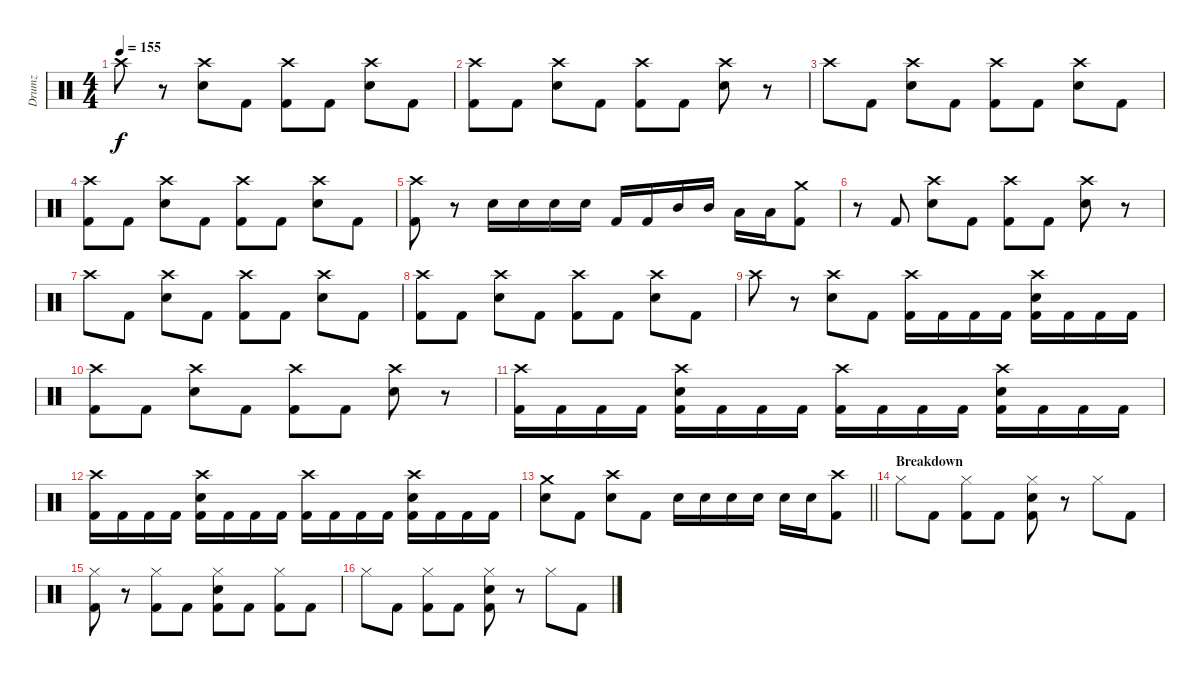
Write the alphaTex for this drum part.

\track ("Drumz" "Drumz") {instrument percussion}
\staff {score}
\articulation defaults
\ts (4 4)
\tempo 155
\clef neutral
\ks c "Crash high (hit)".8{dy f}
r.8 ("Electric Snare (hit)" "Crash high (hit)").8 "Kick (hit) 2".8 ("Kick (hit) 2" "Crash high (hit)").8 "Kick (hit) 2".8 ("Electric Snare (hit)" "Crash high (hit)").8 "Kick (hit) 2".8 |
("Kick (hit) 2" "Crash high (hit)").8 "Kick (hit) 2".8 ("Electric Snare (hit)" "Crash high (hit)").8 "Kick (hit) 2".8 ("Kick (hit) 2" "Crash high (hit)").8 "Kick (hit) 2".8 ("Electric Snare (hit)" "Crash high (hit)").8 r.8 |
"Crash high (hit)".8 "Kick (hit) 2".8 ("Electric Snare (hit)" "Crash high (hit)").8 "Kick (hit) 2".8 ("Kick (hit) 2" "Crash high (hit)").8 "Kick (hit) 2".8 ("Electric Snare (hit)" "Crash high (hit)").8 "Kick (hit) 2".8 |
("Kick (hit) 2" "Crash high (hit)").8 "Kick (hit) 2".8 ("Electric Snare (hit)" "Crash high (hit)").8 "Kick (hit) 2".8 ("Kick (hit) 2" "Crash high (hit)").8 "Kick (hit) 2".8 ("Electric Snare (hit)" "Crash high (hit)").8 "Kick (hit) 2".8 |
("Crash high (hit)" "Kick (hit) 2").8 r.8 "Electric Snare (hit)".16 "Electric Snare (hit)".16 "Electric Snare (hit)".16 "Electric Snare (hit)".16 "Kick (hit) 2".16 "Kick (hit) 2".16 "Mid Tom (hit)".16 "Mid Tom (hit)".16 "Low Tom (hit)".16 "Low Tom (hit)".16 ("Kick (hit) 2" "Crash medium (hit)").8 |
r.8 "Kick (hit) 2".8 ("Electric Snare (hit)" "Crash high (hit)").8 "Kick (hit) 2".8 ("Kick (hit) 2" "Crash high (hit)").8 "Kick (hit) 2".8 ("Electric Snare (hit)" "Crash high (hit)").8 r.8 |
"Crash high (hit)".8 "Kick (hit) 2".8 ("Electric Snare (hit)" "Crash high (hit)").8 "Kick (hit) 2".8 ("Kick (hit) 2" "Crash high (hit)").8 "Kick (hit) 2".8 ("Electric Snare (hit)" "Crash high (hit)").8 "Kick (hit) 2".8 |
("Kick (hit) 2" "Crash high (hit)").8 "Kick (hit) 2".8 ("Electric Snare (hit)" "Crash high (hit)").8 "Kick (hit) 2".8 ("Kick (hit) 2" "Crash high (hit)").8 "Kick (hit) 2".8 ("Electric Snare (hit)" "Crash high (hit)").8 "Kick (hit) 2".8 |
"Crash high (hit)".8 r.8 ("Electric Snare (hit)" "Crash high (hit)").8 "Kick (hit) 2".8 ("Kick (hit) 2" "Crash high (hit)").16 "Kick (hit) 2".16 "Kick (hit) 2".16 "Kick (hit) 2".16 ("Electric Snare (hit)" "Crash high (hit)" "Kick (hit) 2").16 "Kick (hit) 2".16 "Kick (hit) 2".16 "Kick (hit) 2".16 |
("Crash high (hit)" "Kick (hit) 2").8 "Kick (hit) 2".8 ("Electric Snare (hit)" "Crash high (hit)").8 "Kick (hit) 2".8 ("Kick (hit) 2" "Crash high (hit)").8 "Kick (hit) 2".8 ("Electric Snare (hit)" "Crash high (hit)").8 r.8 |
("Kick (hit) 2" "Crash high (hit)").16 "Kick (hit) 2".16 "Kick (hit) 2".16 "Kick (hit) 2".16 ("Electric Snare (hit)" "Crash high (hit)" "Kick (hit) 2").16 "Kick (hit) 2".16 "Kick (hit) 2".16 "Kick (hit) 2".16 ("Kick (hit) 2" "Crash high (hit)").16 "Kick (hit) 2".16 "Kick (hit) 2".16 "Kick (hit) 2".16 ("Electric Snare (hit)" "Crash high (hit)" "Kick (hit) 2").16 "Kick (hit) 2".16 "Kick (hit) 2".16 "Kick (hit) 2".16 |
("Kick (hit) 2" "Crash high (hit)").16 "Kick (hit) 2".16 "Kick (hit) 2".16 "Kick (hit) 2".16 ("Electric Snare (hit)" "Crash high (hit)" "Kick (hit) 2").16 "Kick (hit) 2".16 "Kick (hit) 2".16 "Kick (hit) 2".16 ("Kick (hit) 2" "Crash high (hit)").16 "Kick (hit) 2".16 "Kick (hit) 2".16 "Kick (hit) 2".16 ("Electric Snare (hit)" "Crash high (hit)" "Kick (hit) 2").16 "Kick (hit) 2".16 "Kick (hit) 2".16 "Kick (hit) 2".16 |
\barLineRight lightlight
("Electric Snare (hit)" "Crash medium (hit)").8 "Kick (hit) 2".8 ("Electric Snare (hit)" "Crash high (hit)").8 "Kick (hit) 2".8 "Electric Snare (hit)".16 "Electric Snare (hit)".16 "Electric Snare (hit)".16 "Electric Snare (hit)".16 "Electric Snare (hit)".16 "Electric Snare (hit)".16 ("Crash high (hit)" "Kick (hit) 2").8 |
\section ("" "Breakdown")
"Hi-Hat (closed)".8 "Kick (hit) 2".8 ("Kick (hit) 2" "Hi-Hat (closed)").8 "Kick (hit) 2".8 ("Kick (hit) 2" "Electric Snare (hit)" "Hi-Hat (closed)").8 r.8 "Hi-Hat (closed)".8 "Kick (hit) 2".8 |
("Hi-Hat (closed)" "Kick (hit) 2").8 r.8 ("Kick (hit) 2" "Hi-Hat (closed)").8 "Kick (hit) 2".8 ("Kick (hit) 2" "Electric Snare (hit)" "Hi-Hat (closed)").8 "Kick (hit) 2".8 ("Hi-Hat (closed)" "Kick (hit) 2").8 "Kick (hit) 2".8 |
"Hi-Hat (closed)".8 "Kick (hit) 2".8 ("Kick (hit) 2" "Hi-Hat (closed)").8 "Kick (hit) 2".8 ("Kick (hit) 2" "Electric Snare (hit)" "Hi-Hat (closed)").8 r.8 "Hi-Hat (closed)".8 "Kick (hit) 2".8
